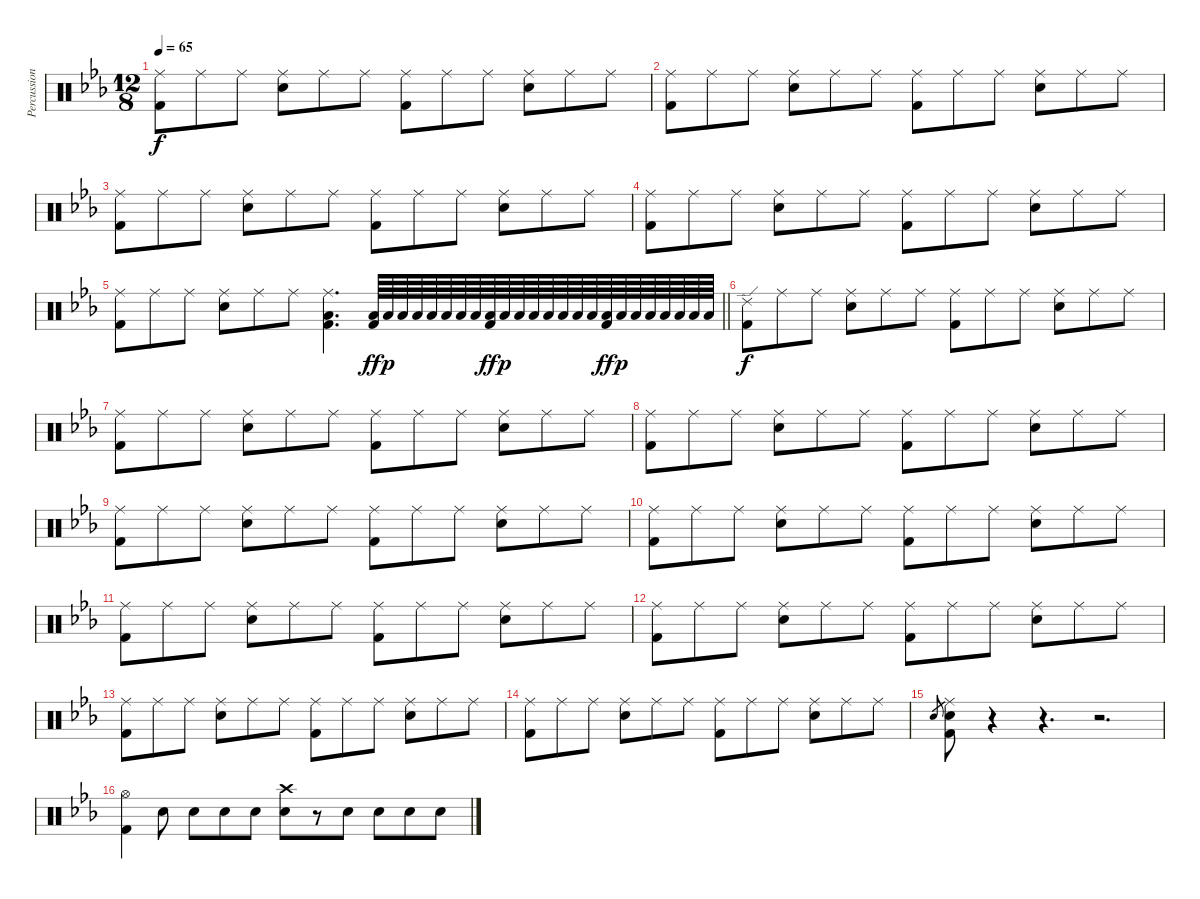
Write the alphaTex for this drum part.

\track ("Percussion" "Percussion") {instrument percussion}
\staff {score}
\articulation defaults
\ts (12 8)
\tempo 65
\clef neutral
\ks cminor
("Ride (middle)" "Kick (hit) 2").8{dy f} "Ride (middle)".8 "Ride (middle)".8 ("Ride (middle)" "Snare (hit) 2").8 "Ride (middle)".8 "Ride (middle)".8 ("Ride (middle)" "Kick (hit) 2").8 "Ride (middle)".8 "Ride (middle)".8 ("Ride (middle)" "Snare (hit) 2").8 "Ride (middle)".8 "Ride (middle)".8 |
("Ride (middle)" "Kick (hit) 2").8 "Ride (middle)".8 "Ride (middle)".8 ("Ride (middle)" "Snare (hit) 2").8 "Ride (middle)".8 "Ride (middle)".8 ("Ride (middle)" "Kick (hit) 2").8 "Ride (middle)".8 "Ride (middle)".8 ("Ride (middle)" "Snare (hit) 2").8 "Ride (middle)".8 "Ride (middle)".8 |
("Ride (middle)" "Kick (hit) 2").8 "Ride (middle)".8 "Ride (middle)".8 ("Ride (middle)" "Snare (hit) 2").8 "Ride (middle)".8 "Ride (middle)".8 ("Ride (middle)" "Kick (hit) 2").8 "Ride (middle)".8 "Ride (middle)".8 ("Ride (middle)" "Snare (hit) 2").8 "Ride (middle)".8 "Ride (middle)".8 |
("Ride (middle)" "Kick (hit) 2").8 "Ride (middle)".8 "Ride (middle)".8 ("Ride (middle)" "Snare (hit) 2").8 "Ride (middle)".8 "Ride (middle)".8 ("Ride (middle)" "Kick (hit) 2").8 "Ride (middle)".8 "Ride (middle)".8 ("Ride (middle)" "Snare (hit) 2").8 "Ride (middle)".8 "Ride (middle)".8 |
\barLineRight lightlight
("Ride (middle)" "Kick (hit) 2").8 "Ride (middle)".8 "Ride (middle)".8 ("Ride (middle)" "Snare (hit) 2").8 "Ride (middle)".8 "Ride (middle)".8 ("Ride (middle)" "Low Floor Tom (hit)" "Kick (hit) 2").4{d} ("Low Floor Tom (hit)" "Kick (hit) 2").64{dy ff} "Low Floor Tom (hit)".64{dy p} "Low Floor Tom (hit)".64 "Low Floor Tom (hit)".64 "Low Floor Tom (hit)".64 "Low Floor Tom (hit)".64 "Low Floor Tom (hit)".64 "Low Floor Tom (hit)".64 ("Low Floor Tom (hit)" "Kick (hit) 2").64{dy ff} "Low Floor Tom (hit)".64{dy p} "Low Floor Tom (hit)".64 "Low Floor Tom (hit)".64 "Low Floor Tom (hit)".64 "Low Floor Tom (hit)".64 "Low Floor Tom (hit)".64 "Low Floor Tom (hit)".64 ("Low Floor Tom (hit)" "Kick (hit) 2").64{dy ff} "Low Floor Tom (hit)".64{dy p} "Low Floor Tom (hit)".64 "Low Floor Tom (hit)".64 "Low Floor Tom (hit)".64 "Low Floor Tom (hit)".64 "Low Floor Tom (hit)".64 "Low Floor Tom (hit)".64 |
("Ride (edge) 2" "Kick (hit) 2").8{dy f} "Ride (middle)".8 "Ride (middle)".8 ("Ride (middle)" "Snare (hit) 2").8 "Ride (middle)".8 "Ride (middle)".8 ("Ride (middle)" "Kick (hit) 2").8 "Ride (middle)".8 "Ride (middle)".8 ("Ride (middle)" "Snare (hit) 2").8 "Ride (middle)".8 "Ride (middle)".8 |
("Ride (middle)" "Kick (hit) 2").8 "Ride (middle)".8 "Ride (middle)".8 ("Ride (middle)" "Snare (hit) 2").8 "Ride (middle)".8 "Ride (middle)".8 ("Ride (middle)" "Kick (hit) 2").8 "Ride (middle)".8 "Ride (middle)".8 ("Ride (middle)" "Snare (hit) 2").8 "Ride (middle)".8 "Ride (middle)".8 |
("Ride (middle)" "Kick (hit) 2").8 "Ride (middle)".8 "Ride (middle)".8 ("Ride (middle)" "Snare (hit) 2").8 "Ride (middle)".8 "Ride (middle)".8 ("Ride (middle)" "Kick (hit) 2").8 "Ride (middle)".8 "Ride (middle)".8 ("Ride (middle)" "Snare (hit) 2").8 "Ride (middle)".8 "Ride (middle)".8 |
("Ride (middle)" "Kick (hit) 2").8 "Ride (middle)".8 "Ride (middle)".8 ("Ride (middle)" "Snare (hit) 2").8 "Ride (middle)".8 "Ride (middle)".8 ("Ride (middle)" "Kick (hit) 2").8 "Ride (middle)".8 "Ride (middle)".8 ("Ride (middle)" "Snare (hit) 2").8 "Ride (middle)".8 "Ride (middle)".8 |
("Ride (middle)" "Kick (hit) 2").8 "Ride (middle)".8 "Ride (middle)".8 ("Ride (middle)" "Snare (hit) 2").8 "Ride (middle)".8 "Ride (middle)".8 ("Ride (middle)" "Kick (hit) 2").8 "Ride (middle)".8 "Ride (middle)".8 ("Ride (middle)" "Snare (hit) 2").8 "Ride (middle)".8 "Ride (middle)".8 |
("Ride (middle)" "Kick (hit) 2").8 "Ride (middle)".8 "Ride (middle)".8 ("Ride (middle)" "Snare (hit) 2").8 "Ride (middle)".8 "Ride (middle)".8 ("Ride (middle)" "Kick (hit) 2").8 "Ride (middle)".8 "Ride (middle)".8 ("Ride (middle)" "Snare (hit) 2").8 "Ride (middle)".8 "Ride (middle)".8 |
("Ride (middle)" "Kick (hit) 2").8 "Ride (middle)".8 "Ride (middle)".8 ("Ride (middle)" "Snare (hit) 2").8 "Ride (middle)".8 "Ride (middle)".8 ("Ride (middle)" "Kick (hit) 2").8 "Ride (middle)".8 "Ride (middle)".8 ("Ride (middle)" "Snare (hit) 2").8 "Ride (middle)".8 "Ride (middle)".8 |
("Ride (middle)" "Kick (hit) 2").8 "Ride (middle)".8 "Ride (middle)".8 ("Ride (middle)" "Snare (hit) 2").8 "Ride (middle)".8 "Ride (middle)".8 ("Ride (middle)" "Kick (hit) 2").8 "Ride (middle)".8 "Ride (middle)".8 ("Ride (middle)" "Snare (hit) 2").8 "Ride (middle)".8 "Ride (middle)".8 |
("Ride (middle)" "Kick (hit) 2").8 "Ride (middle)".8 "Ride (middle)".8 ("Ride (middle)" "Snare (hit) 2").8 "Ride (middle)".8 "Ride (middle)".8 ("Ride (middle)" "Kick (hit) 2").8 "Ride (middle)".8 "Ride (middle)".8 ("Ride (middle)" "Snare (hit) 2").8 "Ride (middle)".8 "Ride (middle)".8 |
"Snare (hit) 2"{h}.8{gr} ("Ride (middle)" "Snare (hit) 2" "Kick (hit) 2").8 r.4 r.4{d} r.2{d} |
("Hi-Hat (open)" "Kick (hit) 2").4 "Snare (hit) 2".8 "Snare (hit) 2".8 "Snare (hit) 2".8 "Snare (hit) 2".8 ("Crash high (hit)" "Snare (hit) 2").8 r.8 "Snare (hit) 2".8 "Snare (hit) 2".8 "Snare (hit) 2".8 "Snare (hit) 2".8
